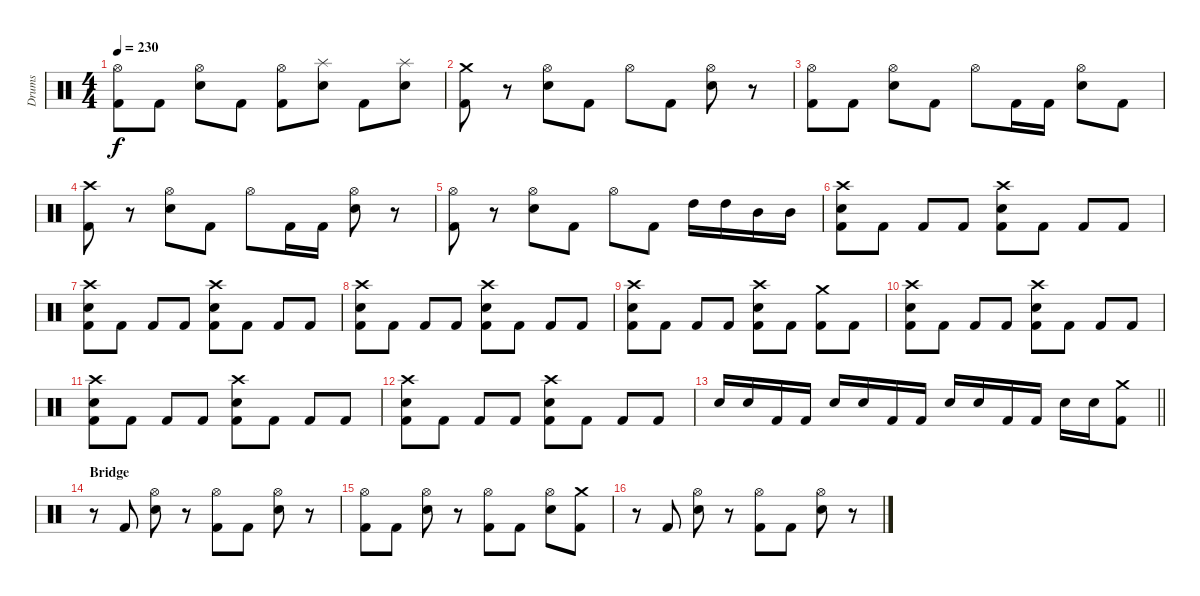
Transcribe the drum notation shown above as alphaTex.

\track ("Drums" "Drums") {instrument percussion}
\staff {score}
\articulation defaults
\ts (4 4)
\tempo 230
\clef neutral
\ks c
("Hi-Hat (open)" "Kick (hit) 2").8{dy f} "Kick (hit) 2".8 ("Hi-Hat (open)" "Electric Snare (hit)").8 "Kick (hit) 2".8 ("Hi-Hat (open)" "Kick (hit) 2").8 ("Splash (hit)" "Electric Snare (hit)").8 "Kick (hit) 2".8 ("Splash (hit)" "Electric Snare (hit)").8 |
("Crash medium (hit)" "Kick (hit) 2").8 r.8 ("Hi-Hat (open)" "Electric Snare (hit)").8 "Kick (hit) 2".8 "Hi-Hat (open)".8 "Kick (hit) 2".8 ("Hi-Hat (open)" "Electric Snare (hit)").8 r.8 |
("Hi-Hat (open)" "Kick (hit) 2").8 "Kick (hit) 2".8 ("Hi-Hat (open)" "Electric Snare (hit)").8 "Kick (hit) 2".8 "Hi-Hat (open)".8 "Kick (hit) 2".16 "Kick (hit) 2".16 ("Hi-Hat (open)" "Electric Snare (hit)").8 "Kick (hit) 2".8 |
("Crash high (hit)" "Kick (hit) 2").8 r.8 ("Hi-Hat (open)" "Electric Snare (hit)").8 "Kick (hit) 2".8 "Hi-Hat (open)".8 "Kick (hit) 2".16 "Kick (hit) 2".16 ("Hi-Hat (open)" "Electric Snare (hit)").8 r.8 |
("Hi-Hat (open)" "Kick (hit) 2").8 r.8 ("Hi-Hat (open)" "Electric Snare (hit)").8 "Kick (hit) 2".8 "Hi-Hat (open)".8 "Kick (hit) 2".8 "High Tom (hit)".16 "High Tom (hit)".16 "Mid Tom (hit)".16 "Mid Tom (hit)".16 |
("Crash high (hit)" "Electric Snare (hit)" "Kick (hit) 2").8 "Kick (hit) 2".8 "Kick (hit) 2".8 "Kick (hit) 2".8 ("Crash high (hit)" "Electric Snare (hit)" "Kick (hit) 2").8 "Kick (hit) 2".8 "Kick (hit) 2".8 "Kick (hit) 2".8 |
("Crash high (hit)" "Electric Snare (hit)" "Kick (hit) 2").8 "Kick (hit) 2".8 "Kick (hit) 2".8 "Kick (hit) 2".8 ("Crash high (hit)" "Electric Snare (hit)" "Kick (hit) 2").8 "Kick (hit) 2".8 "Kick (hit) 2".8 "Kick (hit) 2".8 |
("Crash high (hit)" "Electric Snare (hit)" "Kick (hit) 2").8 "Kick (hit) 2".8 "Kick (hit) 2".8 "Kick (hit) 2".8 ("Crash high (hit)" "Electric Snare (hit)" "Kick (hit) 2").8 "Kick (hit) 2".8 "Kick (hit) 2".8 "Kick (hit) 2".8 |
("Crash high (hit)" "Electric Snare (hit)" "Kick (hit) 2").8 "Kick (hit) 2".8 "Kick (hit) 2".8 "Kick (hit) 2".8 ("Crash high (hit)" "Electric Snare (hit)" "Kick (hit) 2").8 "Kick (hit) 2".8 ("Crash medium (hit)" "Kick (hit) 2").8 "Kick (hit) 2".8 |
("Crash high (hit)" "Electric Snare (hit)" "Kick (hit) 2").8 "Kick (hit) 2".8 "Kick (hit) 2".8 "Kick (hit) 2".8 ("Crash high (hit)" "Electric Snare (hit)" "Kick (hit) 2").8 "Kick (hit) 2".8 "Kick (hit) 2".8 "Kick (hit) 2".8 |
("Crash high (hit)" "Electric Snare (hit)" "Kick (hit) 2").8 "Kick (hit) 2".8 "Kick (hit) 2".8 "Kick (hit) 2".8 ("Crash high (hit)" "Electric Snare (hit)" "Kick (hit) 2").8 "Kick (hit) 2".8 "Kick (hit) 2".8 "Kick (hit) 2".8 |
("Crash high (hit)" "Electric Snare (hit)" "Kick (hit) 2").8 "Kick (hit) 2".8 "Kick (hit) 2".8 "Kick (hit) 2".8 ("Crash high (hit)" "Electric Snare (hit)" "Kick (hit) 2").8 "Kick (hit) 2".8 "Kick (hit) 2".8 "Kick (hit) 2".8 |
\barLineRight lightlight "Electric Snare (hit)".16 "Electric Snare (hit)".16 "Kick (hit) 2".16 "Kick (hit) 2".16 "Electric Snare (hit)".16 "Electric Snare (hit)".16 "Kick (hit) 2".16 "Kick (hit) 2".16 "Electric Snare (hit)".16 "Electric Snare (hit)".16 "Kick (hit) 2".16 "Kick (hit) 2".16 "Electric Snare (hit)".16 "Electric Snare (hit)".16
("Crash medium (hit)" "Kick (hit) 2").8 |
\section ("" "Bridge")
r.8 "Kick (hit) 2".8 ("Hi-Hat (open)" "Electric Snare (hit)").8 r.8 ("Hi-Hat (open)" "Kick (hit) 2").8 "Kick (hit) 2".8 ("Hi-Hat (open)" "Electric Snare (hit)").8 r.8 |
("Hi-Hat (open)" "Kick (hit) 2").8 "Kick (hit) 2".8 ("Hi-Hat (open)" "Electric Snare (hit)").8 r.8 ("Hi-Hat (open)" "Kick (hit) 2").8 "Kick (hit) 2".8 ("Hi-Hat (open)" "Electric Snare (hit)").8 ("Crash medium (hit)" "Kick (hit) 2").8 |
r.8 "Kick (hit) 2".8 ("Hi-Hat (open)" "Electric Snare (hit)").8 r.8 ("Hi-Hat (open)" "Kick (hit) 2").8 "Kick (hit) 2".8 ("Hi-Hat (open)" "Electric Snare (hit)").8 r.8
